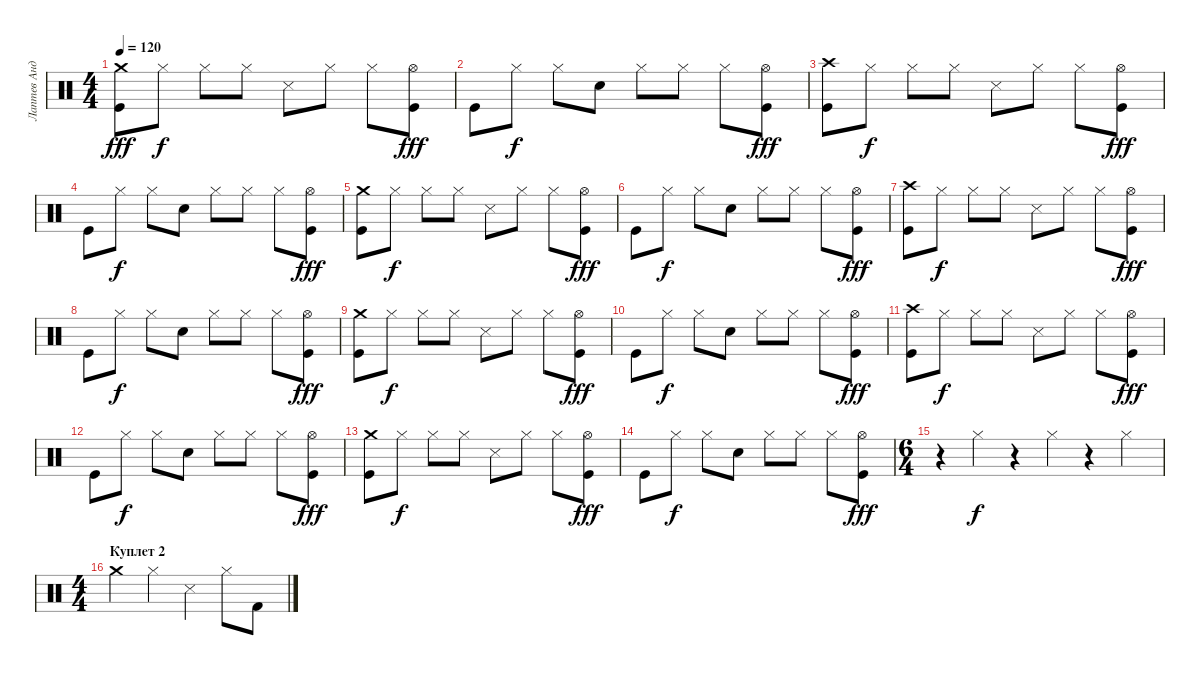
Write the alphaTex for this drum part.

\track ("Лаптев Андрей" "Лаптев Анд") {instrument percussion}
\staff {score}
\articulation defaults
\ts (4 4)
\tempo 120
\clef neutral
\ks c
("Kick (hit)" "Crash medium (hit)").8{dy fff} "Hi-Hat (closed)".8{dy f} "Hi-Hat (closed)".8 "Hi-Hat (closed)".8 "Snare (side stick) 3".8 "Hi-Hat (closed)".8 "Hi-Hat (closed)".8 ("Kick (hit)" "Hi-Hat (open)").8{dy fff} |
"Kick (hit)".8 "Hi-Hat (closed)".8{dy f} "Hi-Hat (closed)".8 "Snare (hit) 2".8 "Hi-Hat (closed)".8 "Hi-Hat (closed)".8 "Hi-Hat (closed)".8 ("Kick (hit)" "Hi-Hat (open)").8{dy fff} |
("Kick (hit)" "Crash high (hit)").8 "Hi-Hat (closed)".8{dy f} "Hi-Hat (closed)".8 "Hi-Hat (closed)".8 "Snare (side stick) 3".8 "Hi-Hat (closed)".8 "Hi-Hat (closed)".8 ("Hi-Hat (open)" "Kick (hit)").8{dy fff} |
"Kick (hit)".8 "Hi-Hat (closed)".8{dy f} "Hi-Hat (closed)".8 "Snare (hit) 2".8 "Hi-Hat (closed)".8 "Hi-Hat (closed)".8 "Hi-Hat (closed)".8 ("Kick (hit)" "Hi-Hat (open)").8{dy fff} |
("Kick (hit)" "Crash medium (hit)").8 "Hi-Hat (closed)".8{dy f} "Hi-Hat (closed)".8 "Hi-Hat (closed)".8 "Snare (side stick) 3".8 "Hi-Hat (closed)".8 "Hi-Hat (closed)".8 ("Kick (hit)" "Hi-Hat (open)").8{dy fff} |
"Kick (hit)".8 "Hi-Hat (closed)".8{dy f} "Hi-Hat (closed)".8 "Snare (hit) 2".8 "Hi-Hat (closed)".8 "Hi-Hat (closed)".8 "Hi-Hat (closed)".8 ("Kick (hit)" "Hi-Hat (open)").8{dy fff} |
("Kick (hit)" "Crash high (hit)").8 "Hi-Hat (closed)".8{dy f} "Hi-Hat (closed)".8 "Hi-Hat (closed)".8 "Snare (side stick) 3".8 "Hi-Hat (closed)".8 "Hi-Hat (closed)".8 ("Hi-Hat (open)" "Kick (hit)").8{dy fff} |
"Kick (hit)".8 "Hi-Hat (closed)".8{dy f} "Hi-Hat (closed)".8 "Snare (hit) 2".8 "Hi-Hat (closed)".8 "Hi-Hat (closed)".8 "Hi-Hat (closed)".8 ("Kick (hit)" "Hi-Hat (open)").8{dy fff} |
("Kick (hit)" "Crash medium (hit)").8 "Hi-Hat (closed)".8{dy f} "Hi-Hat (closed)".8 "Hi-Hat (closed)".8 "Snare (side stick) 3".8 "Hi-Hat (closed)".8 "Hi-Hat (closed)".8 ("Kick (hit)" "Hi-Hat (open)").8{dy fff} |
"Kick (hit)".8 "Hi-Hat (closed)".8{dy f} "Hi-Hat (closed)".8 "Snare (hit) 2".8 "Hi-Hat (closed)".8 "Hi-Hat (closed)".8 "Hi-Hat (closed)".8 ("Kick (hit)" "Hi-Hat (open)").8{dy fff} |
("Kick (hit)" "Crash high (hit)").8 "Hi-Hat (closed)".8{dy f} "Hi-Hat (closed)".8 "Hi-Hat (closed)".8 "Snare (side stick) 3".8 "Hi-Hat (closed)".8 "Hi-Hat (closed)".8 ("Hi-Hat (open)" "Kick (hit)").8{dy fff} |
"Kick (hit)".8 "Hi-Hat (closed)".8{dy f} "Hi-Hat (closed)".8 "Snare (hit) 2".8 "Hi-Hat (closed)".8 "Hi-Hat (closed)".8 "Hi-Hat (closed)".8 ("Kick (hit)" "Hi-Hat (open)").8{dy fff} |
("Kick (hit)" "Crash medium (hit)").8 "Hi-Hat (closed)".8{dy f} "Hi-Hat (closed)".8 "Hi-Hat (closed)".8 "Snare (side stick) 3".8 "Hi-Hat (closed)".8 "Hi-Hat (closed)".8 ("Kick (hit)" "Hi-Hat (open)").8{dy fff} |
"Kick (hit)".8 "Hi-Hat (closed)".8{dy f} "Hi-Hat (closed)".8 "Snare (hit) 2".8 "Hi-Hat (closed)".8 "Hi-Hat (closed)".8 "Hi-Hat (closed)".8 ("Kick (hit)" "Hi-Hat (open)").8{dy fff} |
\ts (6 4)
r.4 "Hi-Hat (closed)".4{dy f} r.4 "Hi-Hat (closed)".4 r.4 "Hi-Hat (closed)".4 |
\ts (4 4)
\section ("" "Куплет 2")
"Crash medium (hit)".4 "Hi-Hat (closed)".4 "Snare (side stick) 3".4 "Hi-Hat (closed)".8 "Kick (hit) 2".8
